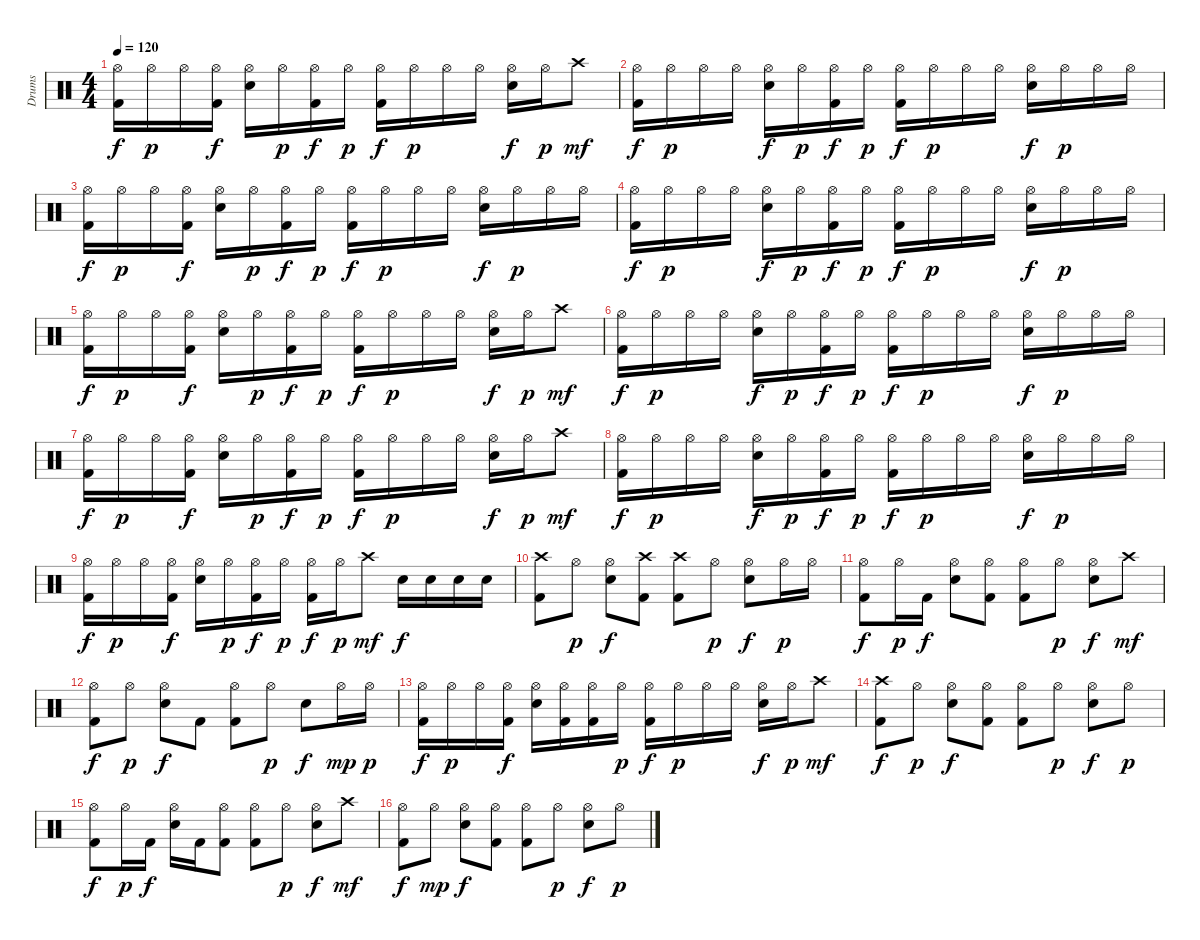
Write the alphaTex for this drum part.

\track ("Drums" "Drums") {instrument percussion}
\staff {score}
\articulation defaults
\ts (4 4)
\tempo 120
\clef neutral
\ks c
("Hi-Hat (open)" "Kick (hit) 2").16{dy f} "Hi-Hat (open)".16{dy p} "Hi-Hat (open)".16 ("Hi-Hat (open)" "Kick (hit) 2").16{dy f} ("Hi-Hat (open)" "Electric Snare (hit)").16 "Hi-Hat (open)".16{dy p} ("Hi-Hat (open)" "Kick (hit) 2").16{dy f} "Hi-Hat (open)".16{dy p} ("Hi-Hat (open)" "Kick (hit) 2").16{dy f} "Hi-Hat (open)".16{dy p} "Hi-Hat (open)".16 "Hi-Hat (open)".16 ("Hi-Hat (open)" "Electric Snare (hit)").16{dy f} "Hi-Hat (open)".16{dy p} "Crash high (hit)".8{dy mf} |
("Hi-Hat (open)" "Kick (hit) 2").16{dy f} "Hi-Hat (open)".16{dy p} "Hi-Hat (open)".16 "Hi-Hat (open)".16 ("Hi-Hat (open)" "Electric Snare (hit)").16{dy f} "Hi-Hat (open)".16{dy p} ("Hi-Hat (open)" "Kick (hit) 2").16{dy f} "Hi-Hat (open)".16{dy p} ("Hi-Hat (open)" "Kick (hit) 2").16{dy f} "Hi-Hat (open)".16{dy p} "Hi-Hat (open)".16 "Hi-Hat (open)".16 ("Hi-Hat (open)" "Electric Snare (hit)").16{dy f} "Hi-Hat (open)".16{dy p} "Hi-Hat (open)".16 "Hi-Hat (open)".16 |
("Hi-Hat (open)" "Kick (hit) 2").16{dy f} "Hi-Hat (open)".16{dy p} "Hi-Hat (open)".16 ("Hi-Hat (open)" "Kick (hit) 2").16{dy f} ("Hi-Hat (open)" "Electric Snare (hit)").16 "Hi-Hat (open)".16{dy p} ("Hi-Hat (open)" "Kick (hit) 2").16{dy f} "Hi-Hat (open)".16{dy p} ("Hi-Hat (open)" "Kick (hit) 2").16{dy f} "Hi-Hat (open)".16{dy p} "Hi-Hat (open)".16 "Hi-Hat (open)".16 ("Hi-Hat (open)" "Electric Snare (hit)").16{dy f} "Hi-Hat (open)".16{dy p} "Hi-Hat (open)".16 "Hi-Hat (open)".16 |
("Hi-Hat (open)" "Kick (hit) 2").16{dy f} "Hi-Hat (open)".16{dy p} "Hi-Hat (open)".16 "Hi-Hat (open)".16 ("Hi-Hat (open)" "Electric Snare (hit)").16{dy f} "Hi-Hat (open)".16{dy p} ("Hi-Hat (open)" "Kick (hit) 2").16{dy f} "Hi-Hat (open)".16{dy p} ("Hi-Hat (open)" "Kick (hit) 2").16{dy f} "Hi-Hat (open)".16{dy p} "Hi-Hat (open)".16 "Hi-Hat (open)".16 ("Hi-Hat (open)" "Electric Snare (hit)").16{dy f} "Hi-Hat (open)".16{dy p} "Hi-Hat (open)".16 "Hi-Hat (open)".16 |
("Hi-Hat (open)" "Kick (hit) 2").16{dy f} "Hi-Hat (open)".16{dy p} "Hi-Hat (open)".16 ("Hi-Hat (open)" "Kick (hit) 2").16{dy f} ("Hi-Hat (open)" "Electric Snare (hit)").16 "Hi-Hat (open)".16{dy p} ("Hi-Hat (open)" "Kick (hit) 2").16{dy f} "Hi-Hat (open)".16{dy p} ("Hi-Hat (open)" "Kick (hit) 2").16{dy f} "Hi-Hat (open)".16{dy p} "Hi-Hat (open)".16 "Hi-Hat (open)".16 ("Hi-Hat (open)" "Electric Snare (hit)").16{dy f} "Hi-Hat (open)".16{dy p} "Crash high (hit)".8{dy mf} |
("Hi-Hat (open)" "Kick (hit) 2").16{dy f} "Hi-Hat (open)".16{dy p} "Hi-Hat (open)".16 "Hi-Hat (open)".16 ("Hi-Hat (open)" "Electric Snare (hit)").16{dy f} "Hi-Hat (open)".16{dy p} ("Hi-Hat (open)" "Kick (hit) 2").16{dy f} "Hi-Hat (open)".16{dy p} ("Hi-Hat (open)" "Kick (hit) 2").16{dy f} "Hi-Hat (open)".16{dy p} "Hi-Hat (open)".16 "Hi-Hat (open)".16 ("Hi-Hat (open)" "Electric Snare (hit)").16{dy f} "Hi-Hat (open)".16{dy p} "Hi-Hat (open)".16 "Hi-Hat (open)".16 |
("Hi-Hat (open)" "Kick (hit) 2").16{dy f} "Hi-Hat (open)".16{dy p} "Hi-Hat (open)".16 ("Hi-Hat (open)" "Kick (hit) 2").16{dy f} ("Hi-Hat (open)" "Electric Snare (hit)").16 "Hi-Hat (open)".16{dy p} ("Hi-Hat (open)" "Kick (hit) 2").16{dy f} "Hi-Hat (open)".16{dy p} ("Hi-Hat (open)" "Kick (hit) 2").16{dy f} "Hi-Hat (open)".16{dy p} "Hi-Hat (open)".16 "Hi-Hat (open)".16 ("Hi-Hat (open)" "Electric Snare (hit)").16{dy f} "Hi-Hat (open)".16{dy p} "Crash high (hit)".8{dy mf} |
("Hi-Hat (open)" "Kick (hit) 2").16{dy f} "Hi-Hat (open)".16{dy p} "Hi-Hat (open)".16 "Hi-Hat (open)".16 ("Hi-Hat (open)" "Electric Snare (hit)").16{dy f} "Hi-Hat (open)".16{dy p} ("Hi-Hat (open)" "Kick (hit) 2").16{dy f} "Hi-Hat (open)".16{dy p} ("Hi-Hat (open)" "Kick (hit) 2").16{dy f} "Hi-Hat (open)".16{dy p} "Hi-Hat (open)".16 "Hi-Hat (open)".16 ("Hi-Hat (open)" "Electric Snare (hit)").16{dy f} "Hi-Hat (open)".16{dy p} "Hi-Hat (open)".16 "Hi-Hat (open)".16 |
("Hi-Hat (open)" "Kick (hit) 2").16{dy f} "Hi-Hat (open)".16{dy p} "Hi-Hat (open)".16 ("Hi-Hat (open)" "Kick (hit) 2").16{dy f} ("Hi-Hat (open)" "Electric Snare (hit)").16 "Hi-Hat (open)".16{dy p} ("Hi-Hat (open)" "Kick (hit) 2").16{dy f} "Hi-Hat (open)".16{dy p} ("Hi-Hat (open)" "Kick (hit) 2").16{dy f} "Hi-Hat (open)".16{dy p} "Crash high (hit)".8{dy mf} "Electric Snare (hit)".16{dy f} "Electric Snare (hit)".16 "Electric Snare (hit)".16 "Electric Snare (hit)".16 |
("Crash high (hit)" "Kick (hit) 2").8 "Hi-Hat (open)".8{dy p} ("Hi-Hat (open)" "Electric Snare (hit)").8{dy f} ("Crash high (hit)" "Kick (hit) 2").8 ("Crash high (hit)" "Kick (hit) 2").8 "Hi-Hat (open)".8{dy p} ("Hi-Hat (open)" "Electric Snare (hit)").8{dy f} "Hi-Hat (open)".16{dy p} "Hi-Hat (open)".16 |
("Hi-Hat (open)" "Kick (hit) 2").8{dy f} "Hi-Hat (open)".16{dy p} "Kick (hit) 2".16{dy f} ("Hi-Hat (open)" "Electric Snare (hit)").8 ("Hi-Hat (open)" "Kick (hit) 2").8 ("Hi-Hat (open)" "Kick (hit) 2").8 "Hi-Hat (open)".8{dy p} ("Hi-Hat (open)" "Electric Snare (hit)").8{dy f} "Crash high (hit)".8{dy mf} |
("Hi-Hat (open)" "Kick (hit) 2").8{dy f} "Hi-Hat (open)".8{dy p} ("Hi-Hat (open)" "Electric Snare (hit)").8{dy f} "Kick (hit) 2".8 ("Hi-Hat (open)" "Kick (hit) 2").8 "Hi-Hat (open)".8{dy p} "Electric Snare (hit)".8{dy f} "Hi-Hat (open)".16{dy mp} "Hi-Hat (open)".16{dy p} |
("Hi-Hat (open)" "Kick (hit) 2").16{dy f} "Hi-Hat (open)".16{dy p} "Hi-Hat (open)".16 ("Hi-Hat (open)" "Kick (hit) 2").16{dy f} ("Hi-Hat (open)" "Electric Snare (hit)").16 ("Hi-Hat (open)" "Kick (hit) 2").16 ("Hi-Hat (open)" "Kick (hit) 2").16 "Hi-Hat (open)".16{dy p} ("Hi-Hat (open)" "Kick (hit) 2").16{dy f} "Hi-Hat (open)".16{dy p} "Hi-Hat (open)".16 "Hi-Hat (open)".16 ("Hi-Hat (open)" "Electric Snare (hit)").16{dy f} "Hi-Hat (open)".16{dy p} "Crash high (hit)".8{dy mf} |
("Crash high (hit)" "Kick (hit) 2").8{dy f} "Hi-Hat (open)".8{dy p} ("Hi-Hat (open)" "Electric Snare (hit)").8{dy f} ("Hi-Hat (open)" "Kick (hit) 2").8 ("Hi-Hat (open)" "Kick (hit) 2").8 "Hi-Hat (open)".8{dy p} ("Hi-Hat (open)" "Electric Snare (hit)").8{dy f} "Hi-Hat (open)".8{dy p} |
("Hi-Hat (open)" "Kick (hit) 2").8{dy f} "Hi-Hat (open)".16{dy p} "Kick (hit) 2".16{dy f} ("Hi-Hat (open)" "Electric Snare (hit)").16 "Kick (hit) 2".16 ("Hi-Hat (open)" "Kick (hit) 2").8 ("Hi-Hat (open)" "Kick (hit) 2").8 "Hi-Hat (open)".8{dy p} ("Hi-Hat (open)" "Electric Snare (hit)").8{dy f} "Crash high (hit)".8{dy mf} |
("Hi-Hat (open)" "Kick (hit) 2").8{dy f} "Hi-Hat (open)".8{dy mp} ("Hi-Hat (open)" "Electric Snare (hit)").8{dy f} ("Hi-Hat (open)" "Kick (hit) 2").8 ("Hi-Hat (open)" "Kick (hit) 2").8 "Hi-Hat (open)".8{dy p} ("Hi-Hat (open)" "Electric Snare (hit)").8{dy f} "Hi-Hat (open)".8{dy p}
